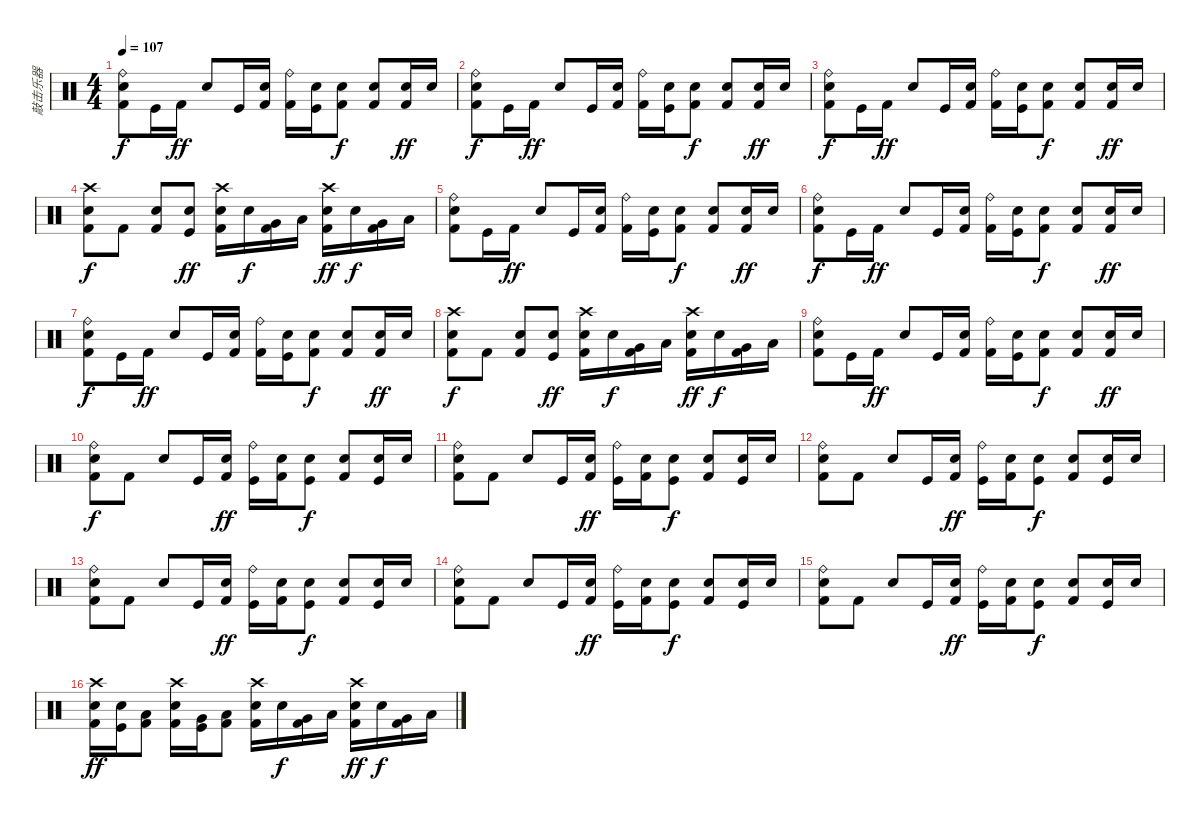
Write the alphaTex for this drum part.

\track ("敲击乐器" "敲击乐器") {instrument percussion}
\staff {score}
\articulation defaults
\ts (4 4)
\tempo 107
\clef neutral
\ks c
("Ride (bell)" "Snare (hit) 2" "Kick (hit) 2").8{dy f} "Kick (hit)".16 "Kick (hit) 2".16{dy ff} "Electric Snare (hit)".8 "Kick (hit)".16 ("Electric Snare (hit)" "Kick (hit) 2").16 ("Ride (bell)" "Kick (hit) 2").16 ("Electric Snare (hit)" "Kick (hit)").16 ("Snare (hit) 2" "Kick (hit) 2").8{dy f} ("Electric Snare (hit)" "Kick (hit) 2").8 ("Snare (hit) 2" "Kick (hit) 2").16{dy ff} "Snare (hit) 2".16 |
("Ride (bell)" "Snare (hit) 2" "Kick (hit) 2").8{dy f} "Kick (hit)".16 "Kick (hit) 2".16{dy ff} "Electric Snare (hit)".8 "Kick (hit)".16 ("Electric Snare (hit)" "Kick (hit) 2").16 ("Ride (bell)" "Kick (hit) 2").16 ("Electric Snare (hit)" "Kick (hit)").16 ("Snare (hit) 2" "Kick (hit) 2").8{dy f} ("Electric Snare (hit)" "Kick (hit) 2").8 ("Snare (hit) 2" "Kick (hit) 2").16{dy ff} "Snare (hit) 2".16 |
("Ride (bell)" "Snare (hit) 2" "Kick (hit) 2").8{dy f} "Kick (hit)".16 "Kick (hit) 2".16{dy ff} "Electric Snare (hit)".8 "Kick (hit)".16 ("Electric Snare (hit)" "Kick (hit) 2").16 ("Ride (bell)" "Kick (hit) 2").16 ("Electric Snare (hit)" "Kick (hit)").16 ("Snare (hit) 2" "Kick (hit) 2").8{dy f} ("Electric Snare (hit)" "Kick (hit) 2").8 ("Snare (hit) 2" "Kick (hit) 2").16{dy ff} "Snare (hit) 2".16 |
("Crash high (hit)" "Snare (hit) 2" "Kick (hit) 2").8{dy f} "Kick (hit) 2".8 ("Electric Snare (hit)" "Kick (hit) 2").8 ("Snare (hit) 2" "Kick (hit)").8{dy ff} ("Crash high (hit)" "Electric Snare (hit)" "Kick (hit) 2").16 "Snare (hit) 2".16{dy f} ("Very Low Tom (hit)" "Kick (hit) 2").16 "Low Floor Tom (hit)".16 ("Crash high (hit)" "Electric Snare (hit)" "Kick (hit) 2").16{dy ff} "Snare (hit) 2".16{dy f} ("Very Low Tom (hit)" "Kick (hit) 2").16 "Low Floor Tom (hit)".16 |
("Ride (bell)" "Snare (hit) 2" "Kick (hit) 2").8 "Kick (hit)".16 "Kick (hit) 2".16{dy ff} "Electric Snare (hit)".8 "Kick (hit)".16 ("Electric Snare (hit)" "Kick (hit) 2").16 ("Ride (bell)" "Kick (hit) 2").16 ("Electric Snare (hit)" "Kick (hit)").16 ("Snare (hit) 2" "Kick (hit) 2").8{dy f} ("Electric Snare (hit)" "Kick (hit) 2").8 ("Snare (hit) 2" "Kick (hit) 2").16{dy ff} "Snare (hit) 2".16 |
("Ride (bell)" "Snare (hit) 2" "Kick (hit) 2").8{dy f} "Kick (hit)".16 "Kick (hit) 2".16{dy ff} "Electric Snare (hit)".8 "Kick (hit)".16 ("Electric Snare (hit)" "Kick (hit) 2").16 ("Ride (bell)" "Kick (hit) 2").16 ("Electric Snare (hit)" "Kick (hit)").16 ("Snare (hit) 2" "Kick (hit) 2").8{dy f} ("Electric Snare (hit)" "Kick (hit) 2").8 ("Snare (hit) 2" "Kick (hit) 2").16{dy ff} "Snare (hit) 2".16 |
("Ride (bell)" "Snare (hit) 2" "Kick (hit) 2").8{dy f} "Kick (hit)".16 "Kick (hit) 2".16{dy ff} "Electric Snare (hit)".8 "Kick (hit)".16 ("Electric Snare (hit)" "Kick (hit) 2").16 ("Ride (bell)" "Kick (hit) 2").16 ("Electric Snare (hit)" "Kick (hit)").16 ("Snare (hit) 2" "Kick (hit) 2").8{dy f} ("Electric Snare (hit)" "Kick (hit) 2").8 ("Snare (hit) 2" "Kick (hit) 2").16{dy ff} "Snare (hit) 2".16 |
("Crash high (hit)" "Snare (hit) 2" "Kick (hit) 2").8{dy f} "Kick (hit) 2".8 ("Electric Snare (hit)" "Kick (hit) 2").8 ("Snare (hit) 2" "Kick (hit)").8{dy ff} ("Crash high (hit)" "Electric Snare (hit)" "Kick (hit) 2").16 "Snare (hit) 2".16{dy f} ("Very Low Tom (hit)" "Kick (hit) 2").16 "Low Floor Tom (hit)".16 ("Crash high (hit)" "Electric Snare (hit)" "Kick (hit) 2").16{dy ff} "Snare (hit) 2".16{dy f} ("Very Low Tom (hit)" "Kick (hit) 2").16 "Low Floor Tom (hit)".16 |
("Ride (bell)" "Snare (hit) 2" "Kick (hit) 2").8 "Kick (hit)".16 "Kick (hit) 2".16{dy ff} "Electric Snare (hit)".8 "Kick (hit)".16 ("Electric Snare (hit)" "Kick (hit) 2").16 ("Ride (bell)" "Kick (hit) 2").16 ("Electric Snare (hit)" "Kick (hit)").16 ("Snare (hit) 2" "Kick (hit) 2").8{dy f} ("Electric Snare (hit)" "Kick (hit) 2").8 ("Snare (hit) 2" "Kick (hit) 2").16{dy ff} "Snare (hit) 2".16 |
("Ride (bell)" "Snare (hit) 2" "Kick (hit) 2").8{dy f} "Kick (hit) 2".8 "Electric Snare (hit)".8 "Kick (hit)".16 ("Electric Snare (hit)" "Kick (hit) 2").16{dy ff} ("Ride (bell)" "Kick (hit)").16 ("Electric Snare (hit)" "Kick (hit) 2").16 ("Snare (hit) 2" "Kick (hit)").8{dy f} ("Electric Snare (hit)" "Kick (hit) 2").8 ("Snare (hit) 2" "Kick (hit)").16 "Snare (hit) 2".16 |
("Ride (bell)" "Snare (hit) 2" "Kick (hit) 2").8 "Kick (hit) 2".8 "Electric Snare (hit)".8 "Kick (hit)".16 ("Electric Snare (hit)" "Kick (hit) 2").16{dy ff} ("Ride (bell)" "Kick (hit)").16 ("Electric Snare (hit)" "Kick (hit) 2").16 ("Snare (hit) 2" "Kick (hit)").8{dy f} ("Electric Snare (hit)" "Kick (hit) 2").8 ("Snare (hit) 2" "Kick (hit)").16 "Snare (hit) 2".16 |
("Ride (bell)" "Snare (hit) 2" "Kick (hit) 2").8 "Kick (hit) 2".8 "Electric Snare (hit)".8 "Kick (hit)".16 ("Electric Snare (hit)" "Kick (hit) 2").16{dy ff} ("Ride (bell)" "Kick (hit)").16 ("Electric Snare (hit)" "Kick (hit) 2").16 ("Snare (hit) 2" "Kick (hit)").8{dy f} ("Electric Snare (hit)" "Kick (hit) 2").8 ("Snare (hit) 2" "Kick (hit)").16 "Snare (hit) 2".16 |
("Ride (bell)" "Snare (hit) 2" "Kick (hit) 2").8 "Kick (hit) 2".8 "Electric Snare (hit)".8 "Kick (hit)".16 ("Electric Snare (hit)" "Kick (hit) 2").16{dy ff} ("Ride (bell)" "Kick (hit)").16 ("Electric Snare (hit)" "Kick (hit) 2").16 ("Snare (hit) 2" "Kick (hit)").8{dy f} ("Electric Snare (hit)" "Kick (hit) 2").8 ("Snare (hit) 2" "Kick (hit)").16 "Snare (hit) 2".16 |
("Ride (bell)" "Snare (hit) 2" "Kick (hit) 2").8 "Kick (hit) 2".8 "Electric Snare (hit)".8 "Kick (hit)".16 ("Electric Snare (hit)" "Kick (hit) 2").16{dy ff} ("Ride (bell)" "Kick (hit)").16 ("Electric Snare (hit)" "Kick (hit) 2").16 ("Snare (hit) 2" "Kick (hit)").8{dy f} ("Electric Snare (hit)" "Kick (hit) 2").8 ("Snare (hit) 2" "Kick (hit)").16 "Snare (hit) 2".16 |
("Ride (bell)" "Snare (hit) 2" "Kick (hit) 2").8 "Kick (hit) 2".8 "Electric Snare (hit)".8 "Kick (hit)".16 ("Electric Snare (hit)" "Kick (hit) 2").16{dy ff} ("Ride (bell)" "Kick (hit)").16 ("Electric Snare (hit)" "Kick (hit) 2").16 ("Snare (hit) 2" "Kick (hit)").8{dy f} ("Electric Snare (hit)" "Kick (hit) 2").8 ("Snare (hit) 2" "Kick (hit)").16 "Snare (hit) 2".16 |
("Crash high (hit)" "Electric Snare (hit)" "Kick (hit) 2").16{dy ff} ("Snare (hit) 2" "Kick (hit)").16 ("Low Floor Tom (hit)" "Kick (hit) 2").8 ("Crash high (hit)" "Snare (hit) 2" "Kick (hit) 2").16 ("Very Low Tom (hit)" "Kick (hit)").16 ("Low Floor Tom (hit)" "Kick (hit) 2").8 ("Crash high (hit)" "Electric Snare (hit)" "Kick (hit) 2").16 "Snare (hit) 2".16{dy f} ("Very Low Tom (hit)" "Kick (hit) 2").16 "Low Floor Tom (hit)".16 ("Crash high (hit)" "Electric Snare (hit)" "Kick (hit) 2").16{dy ff} "Snare (hit) 2".16{dy f} ("Very Low Tom (hit)" "Kick (hit) 2").16 "Low Floor Tom (hit)".16
